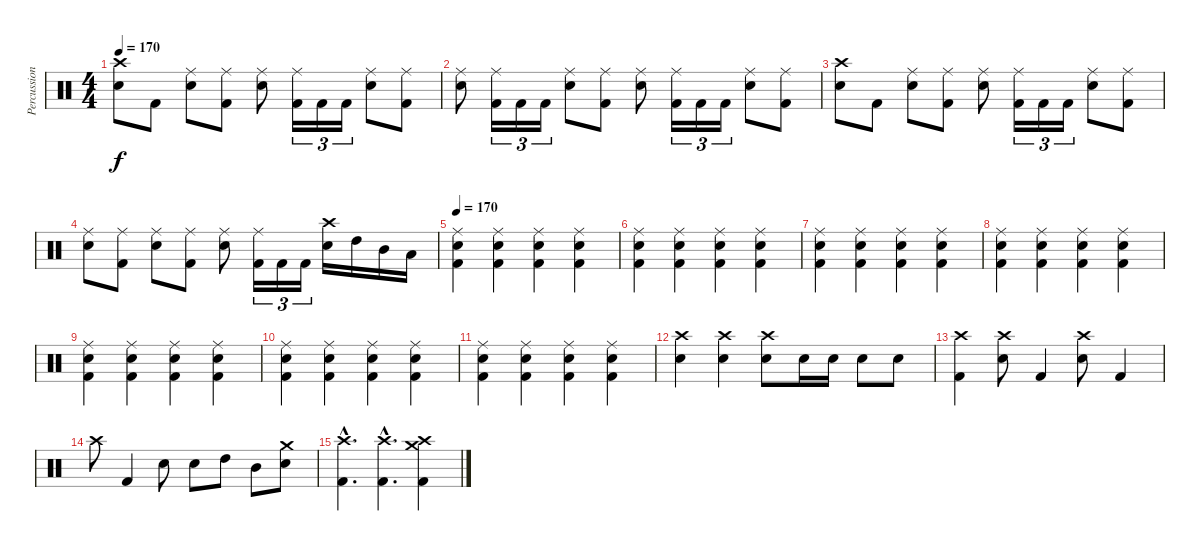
\track ("Percussion" "Percussion") {instrument percussion}
\staff {score}
\articulation defaults
\ts (4 4)
\tempo 170
\clef neutral
\ks c
("Crash high (hit)" "Electric Snare (hit)").8{dy f} "Kick (hit) 2".8 ("Ride (middle)" "Electric Snare (hit)").8 ("Ride (middle)" "Kick (hit) 2").8 ("Ride (middle)" "Electric Snare (hit)").8 ("Ride (middle)" "Kick (hit) 2").16{tu (3 2)} "Kick (hit) 2".16{tu (3 2)} "Kick (hit) 2".16{tu (3 2)} ("Ride (middle)" "Electric Snare (hit)").8 ("Ride (middle)" "Kick (hit) 2").8 |
("Ride (middle)" "Electric Snare (hit)").8 ("Ride (middle)" "Kick (hit) 2").16{tu (3 2)} "Kick (hit) 2".16{tu (3 2)} "Kick (hit) 2".16{tu (3 2)} ("Ride (middle)" "Electric Snare (hit)").8 ("Ride (middle)" "Kick (hit) 2").8 ("Ride (middle)" "Electric Snare (hit)").8 ("Ride (middle)" "Kick (hit) 2").16{tu (3 2)} "Kick (hit) 2".16{tu (3 2)} "Kick (hit) 2".16{tu (3 2)} ("Ride (middle)" "Electric Snare (hit)").8 ("Ride (middle)" "Kick (hit) 2").8 |
("Crash high (hit)" "Electric Snare (hit)").8 "Kick (hit) 2".8 ("Ride (middle)" "Electric Snare (hit)").8 ("Ride (middle)" "Kick (hit) 2").8 ("Ride (middle)" "Electric Snare (hit)").8 ("Ride (middle)" "Kick (hit) 2").16{tu (3 2)} "Kick (hit) 2".16{tu (3 2)} "Kick (hit) 2".16{tu (3 2)} ("Ride (middle)" "Electric Snare (hit)").8 ("Ride (middle)" "Kick (hit) 2").8 |
("Ride (middle)" "Electric Snare (hit)").8 ("Ride (middle)" "Kick (hit) 2").8 ("Ride (middle)" "Electric Snare (hit)").8 ("Ride (middle)" "Kick (hit) 2").8 ("Ride (middle)" "Electric Snare (hit)").8 ("Ride (middle)" "Kick (hit) 2").16{tu (3 2)} "Kick (hit) 2".16{tu (3 2)} "Kick (hit) 2".16{tu (3 2)} ("Crash high (hit)" "Electric Snare (hit)").16 "High Tom (hit)".16 "Mid Tom (hit)".16 "Low Tom (hit)".16 |
\tempo 170
("Ride (middle)" "Electric Snare (hit)" "Kick (hit) 2").4 ("Ride (middle)" "Electric Snare (hit)" "Kick (hit) 2").4 ("Ride (middle)" "Electric Snare (hit)" "Kick (hit) 2").4 ("Ride (middle)" "Electric Snare (hit)" "Kick (hit) 2").4 |
("Ride (middle)" "Electric Snare (hit)" "Kick (hit) 2").4 ("Ride (middle)" "Electric Snare (hit)" "Kick (hit) 2").4 ("Ride (middle)" "Electric Snare (hit)" "Kick (hit) 2").4 ("Ride (middle)" "Electric Snare (hit)" "Kick (hit) 2").4 |
("Ride (middle)" "Electric Snare (hit)" "Kick (hit) 2").4 ("Ride (middle)" "Electric Snare (hit)" "Kick (hit) 2").4 ("Ride (middle)" "Electric Snare (hit)" "Kick (hit) 2").4 ("Ride (middle)" "Electric Snare (hit)" "Kick (hit) 2").4 |
("Ride (middle)" "Electric Snare (hit)" "Kick (hit) 2").4 ("Ride (middle)" "Electric Snare (hit)" "Kick (hit) 2").4 ("Ride (middle)" "Electric Snare (hit)" "Kick (hit) 2").4 ("Ride (middle)" "Electric Snare (hit)" "Kick (hit) 2").4 |
("Ride (middle)" "Electric Snare (hit)" "Kick (hit) 2").4 ("Ride (middle)" "Electric Snare (hit)" "Kick (hit) 2").4 ("Ride (middle)" "Electric Snare (hit)" "Kick (hit) 2").4 ("Ride (middle)" "Electric Snare (hit)" "Kick (hit) 2").4 |
("Ride (middle)" "Electric Snare (hit)" "Kick (hit) 2").4 ("Ride (middle)" "Electric Snare (hit)" "Kick (hit) 2").4 ("Ride (middle)" "Electric Snare (hit)" "Kick (hit) 2").4 ("Ride (middle)" "Electric Snare (hit)" "Kick (hit) 2").4 |
("Ride (middle)" "Electric Snare (hit)" "Kick (hit) 2").4 ("Ride (middle)" "Electric Snare (hit)" "Kick (hit) 2").4 ("Ride (middle)" "Electric Snare (hit)" "Kick (hit) 2").4 ("Ride (middle)" "Electric Snare (hit)" "Kick (hit) 2").4 |
("Crash high (hit)" "Electric Snare (hit)").4 ("Crash high (hit)" "Electric Snare (hit)").4 ("Crash high (hit)" "Electric Snare (hit)").8 "Electric Snare (hit)".16 "Electric Snare (hit)".16 "Electric Snare (hit)".8 "Electric Snare (hit)".8 |
("Crash high (hit)" "Kick (hit) 2").4 ("Crash high (hit)" "Electric Snare (hit)").8 "Kick (hit) 2".4 ("Crash high (hit)" "Electric Snare (hit)").8 "Kick (hit) 2".4 |
"Crash high (hit)".8 "Kick (hit) 2".4 "Electric Snare (hit)".8 "Electric Snare (hit)".8 "High Tom (hit)".8 "Mid Tom (hit)".8 ("Crash medium (hit)" "Electric Snare (hit)").8 |
("Crash high (hit)"{hac} "Kick (hit) 2"{hac}).4{d} ("Crash high (hit)"{hac} "Kick (hit) 2"{hac}).4{d} ("Crash medium (hit)" "Crash high (hit)" "Kick (hit) 2").4
